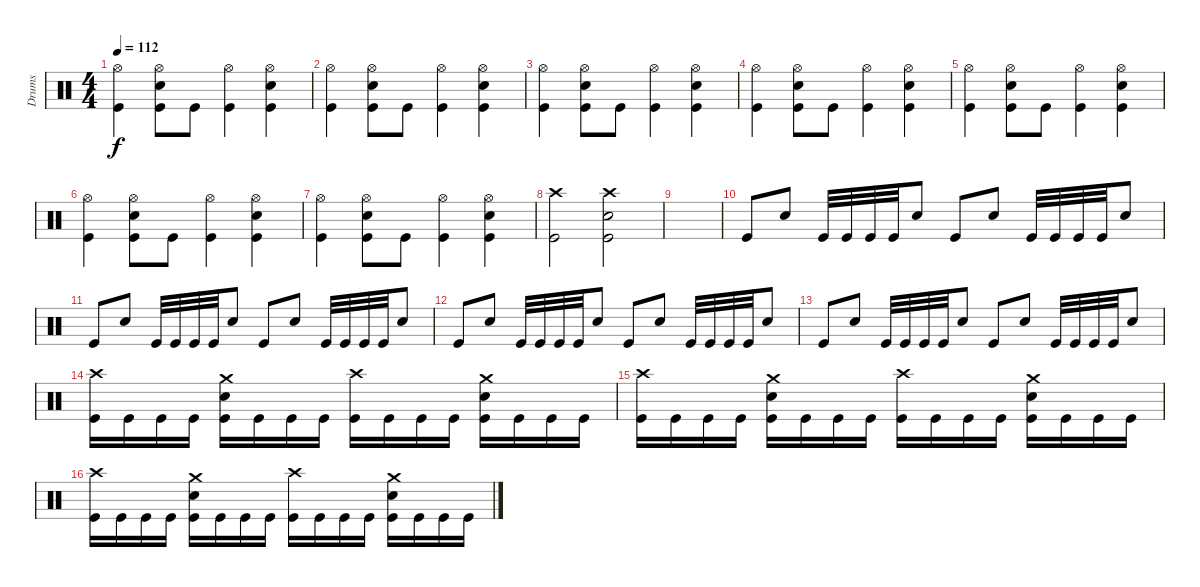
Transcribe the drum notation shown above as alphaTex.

\track ("Drums" "Drums") {instrument percussion}
\staff
\articulation defaults
\ts (4 4)
\section ("" "")
\tempo 112
\clef neutral
\ks c
("Hi-Hat (open)" "Kick (hit)").4{dy f} ("Hi-Hat (open)" "Electric Snare (hit)" "Kick (hit)").8 "Kick (hit)".8 ("Hi-Hat (open)" "Kick (hit)").4 ("Hi-Hat (open)" "Electric Snare (hit)" "Kick (hit)").4 |
("Hi-Hat (open)" "Kick (hit)").4 ("Hi-Hat (open)" "Electric Snare (hit)" "Kick (hit)").8 "Kick (hit)".8 ("Hi-Hat (open)" "Kick (hit)").4 ("Hi-Hat (open)" "Electric Snare (hit)" "Kick (hit)").4 |
("Hi-Hat (open)" "Kick (hit)").4 ("Hi-Hat (open)" "Electric Snare (hit)" "Kick (hit)").8 "Kick (hit)".8 ("Hi-Hat (open)" "Kick (hit)").4 ("Hi-Hat (open)" "Electric Snare (hit)" "Kick (hit)").4 |
("Hi-Hat (open)" "Kick (hit)").4 ("Hi-Hat (open)" "Electric Snare (hit)" "Kick (hit)").8 "Kick (hit)".8 ("Hi-Hat (open)" "Kick (hit)").4 ("Hi-Hat (open)" "Electric Snare (hit)" "Kick (hit)").4 |
("Hi-Hat (open)" "Kick (hit)").4 ("Hi-Hat (open)" "Electric Snare (hit)" "Kick (hit)").8 "Kick (hit)".8 ("Hi-Hat (open)" "Kick (hit)").4 ("Hi-Hat (open)" "Electric Snare (hit)" "Kick (hit)").4 |
("Hi-Hat (open)" "Kick (hit)").4 ("Hi-Hat (open)" "Electric Snare (hit)" "Kick (hit)").8 "Kick (hit)".8 ("Hi-Hat (open)" "Kick (hit)").4 ("Hi-Hat (open)" "Electric Snare (hit)" "Kick (hit)").4 |
("Hi-Hat (open)" "Kick (hit)").4 ("Hi-Hat (open)" "Electric Snare (hit)" "Kick (hit)").8 "Kick (hit)".8 ("Hi-Hat (open)" "Kick (hit)").4 ("Hi-Hat (open)" "Electric Snare (hit)" "Kick (hit)").4 |
("Crash high (hit)" "Kick (hit)").2 ("Crash high (hit)" "Electric Snare (hit)" "Kick (hit)").2 |
|
"Kick (hit)".8 "Electric Snare (hit)".8 "Kick (hit)".32 "Kick (hit)".32 "Kick (hit)".32 "Kick (hit)".32 "Electric Snare (hit)".8 "Kick (hit)".8 "Electric Snare (hit)".8 "Kick (hit)".32 "Kick (hit)".32 "Kick (hit)".32 "Kick (hit)".32 "Electric Snare (hit)".8 |
"Kick (hit)".8 "Electric Snare (hit)".8 "Kick (hit)".32 "Kick (hit)".32 "Kick (hit)".32 "Kick (hit)".32 "Electric Snare (hit)".8 "Kick (hit)".8 "Electric Snare (hit)".8 "Kick (hit)".32 "Kick (hit)".32 "Kick (hit)".32 "Kick (hit)".32 "Electric Snare (hit)".8 |
"Kick (hit)".8 "Electric Snare (hit)".8 "Kick (hit)".32 "Kick (hit)".32 "Kick (hit)".32 "Kick (hit)".32 "Electric Snare (hit)".8 "Kick (hit)".8 "Electric Snare (hit)".8 "Kick (hit)".32 "Kick (hit)".32 "Kick (hit)".32 "Kick (hit)".32 "Electric Snare (hit)".8 |
"Kick (hit)".8 "Electric Snare (hit)".8 "Kick (hit)".32 "Kick (hit)".32 "Kick (hit)".32 "Kick (hit)".32 "Electric Snare (hit)".8 "Kick (hit)".8 "Electric Snare (hit)".8 "Kick (hit)".32 "Kick (hit)".32 "Kick (hit)".32 "Kick (hit)".32 "Electric Snare (hit)".8 |
("Crash high (hit)" "Kick (hit)").16 "Kick (hit)".16 "Kick (hit)".16 "Kick (hit)".16 ("Crash medium (hit)" "Electric Snare (hit)" "Kick (hit)").16 "Kick (hit)".16 "Kick (hit)".16 "Kick (hit)".16 ("Crash high (hit)" "Kick (hit)").16 "Kick (hit)".16 "Kick (hit)".16 "Kick (hit)".16 ("Crash medium (hit)" "Electric Snare (hit)" "Kick (hit)").16 "Kick (hit)".16 "Kick (hit)".16 "Kick (hit)".16 |
("Crash high (hit)" "Kick (hit)").16 "Kick (hit)".16 "Kick (hit)".16 "Kick (hit)".16 ("Crash medium (hit)" "Electric Snare (hit)" "Kick (hit)").16 "Kick (hit)".16 "Kick (hit)".16 "Kick (hit)".16 ("Crash high (hit)" "Kick (hit)").16 "Kick (hit)".16 "Kick (hit)".16 "Kick (hit)".16 ("Crash medium (hit)" "Electric Snare (hit)" "Kick (hit)").16 "Kick (hit)".16 "Kick (hit)".16 "Kick (hit)".16 |
("Crash high (hit)" "Kick (hit)").16 "Kick (hit)".16 "Kick (hit)".16 "Kick (hit)".16 ("Crash medium (hit)" "Electric Snare (hit)" "Kick (hit)").16 "Kick (hit)".16 "Kick (hit)".16 "Kick (hit)".16 ("Crash high (hit)" "Kick (hit)").16 "Kick (hit)".16 "Kick (hit)".16 "Kick (hit)".16 ("Crash medium (hit)" "Electric Snare (hit)" "Kick (hit)").16 "Kick (hit)".16 "Kick (hit)".16 "Kick (hit)".16
